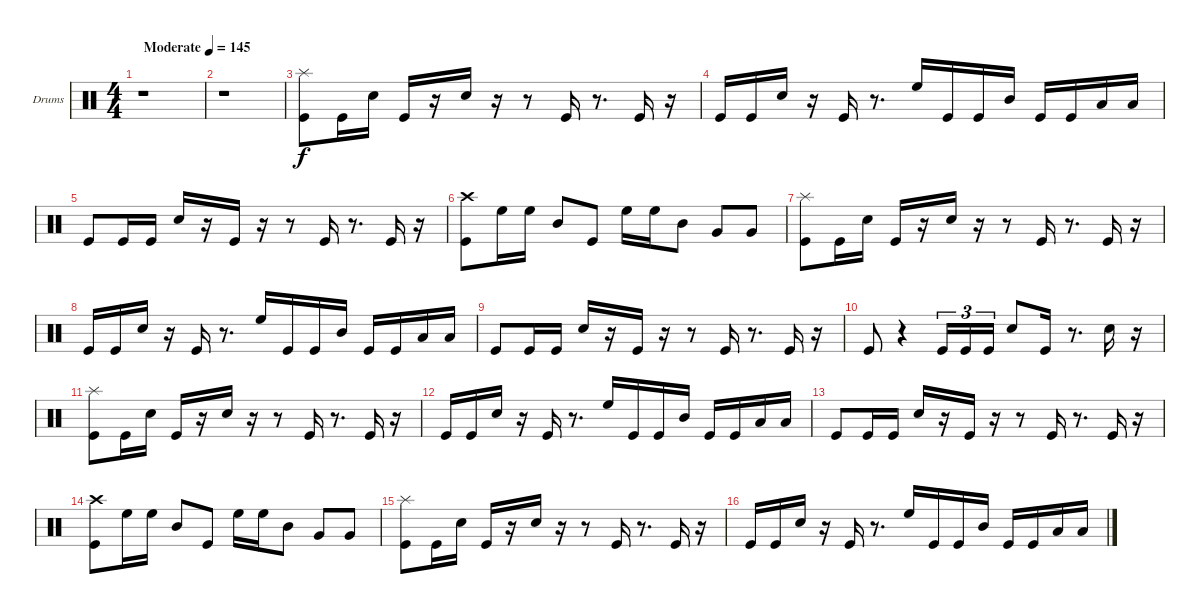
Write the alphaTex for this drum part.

\bracketExtendMode groupsimilarinstruments
\firstSystemTrackNameOrientation horizontal
\otherSystemsTrackNameOrientation horizontal
\track ("Drumkit" "Drums") {instrument percussion}
\staff {score}
\articulation defaults
\ts (4 4)
\beaming (8 2 2 2 2)
\tempo (145 "Moderate")
\clef neutral
\ks c
r.1{dy f} |
r.1 |
("Kick (hit)" "Splash (hit)").8 "Kick (hit)".16 "Snare (hit) 2".16 "Kick (hit)".16 r.16 "Snare (hit) 2".16 r.16 r.8 "Kick (hit)".16 r.8{d} "Kick (hit)".16 r.16 |
"Kick (hit)".16 "Kick (hit)".16 "Snare (hit) 2".16 r.16 "Kick (hit)".16 r.8{d} "High Floor Tom (hit)".16 "Kick (hit)".16 "Kick (hit)".16 "Mid Tom (hit)".16 "Kick (hit)".16 "Kick (hit)".16 "Low Tom (hit)".16 "Low Tom (hit)".16 |
"Kick (hit)".8 "Kick (hit)".16 "Kick (hit)".16 "Snare (hit) 2".16 r.16 "Kick (hit)".16 r.16 r.8 "Kick (hit)".16 r.8{d} "Kick (hit)".16 r.16 |
("Crash high (hit)" "Kick (hit)").8 "High Floor Tom (hit)".16 "High Floor Tom (hit)".16 "Mid Tom (hit)".8 "Kick (hit)".8 "High Floor Tom (hit)".16 "High Floor Tom (hit)".16 "Mid Tom (hit)".8 "Very Low Tom (hit)".8 "Very Low Tom (hit)".8 |
("Splash (hit)" "Kick (hit)").8 "Kick (hit)".16 "Snare (hit) 2".16 "Kick (hit)".16 r.16 "Snare (hit) 2".16 r.16 r.8 "Kick (hit)".16 r.8{d} "Kick (hit)".16 r.16 |
"Kick (hit)".16 "Kick (hit)".16 "Snare (hit) 2".16 r.16 "Kick (hit)".16 r.8{d} "High Floor Tom (hit)".16 "Kick (hit)".16 "Kick (hit)".16 "Mid Tom (hit)".16 "Kick (hit)".16 "Kick (hit)".16 "Low Tom (hit)".16 "Low Tom (hit)".16 |
"Kick (hit)".8 "Kick (hit)".16 "Kick (hit)".16 "Snare (hit) 2".16 r.16 "Kick (hit)".16 r.16 r.8 "Kick (hit)".16 r.8{d} "Kick (hit)".16 r.16 |
"Kick (hit)".8 r.4 "Kick (hit)".16{tu (3 2)} "Kick (hit)".16{tu (3 2)} "Kick (hit)".16{tu (3 2)} "Snare (hit) 2".8 "Kick (hit)".16 r.8{d} "Snare (hit) 2".16 r.16 |
("Kick (hit)" "Splash (hit)").8 "Kick (hit)".16 "Snare (hit) 2".16 "Kick (hit)".16 r.16 "Snare (hit) 2".16 r.16 r.8 "Kick (hit)".16 r.8{d} "Kick (hit)".16 r.16 |
"Kick (hit)".16 "Kick (hit)".16 "Snare (hit) 2".16 r.16 "Kick (hit)".16 r.8{d} "High Floor Tom (hit)".16 "Kick (hit)".16 "Kick (hit)".16 "Mid Tom (hit)".16 "Kick (hit)".16 "Kick (hit)".16 "Low Tom (hit)".16 "Low Tom (hit)".16 |
"Kick (hit)".8 "Kick (hit)".16 "Kick (hit)".16 "Snare (hit) 2".16 r.16 "Kick (hit)".16 r.16 r.8 "Kick (hit)".16 r.8{d} "Kick (hit)".16 r.16 |
("Kick (hit)" "Crash high (hit)").8 "High Floor Tom (hit)".16 "High Floor Tom (hit)".16 "Mid Tom (hit)".8 "Kick (hit)".8 "High Floor Tom (hit)".16 "High Floor Tom (hit)".16 "Mid Tom (hit)".8 "Very Low Tom (hit)".8 "Very Low Tom (hit)".8 |
("Splash (hit)" "Kick (hit)").8 "Kick (hit)".16 "Snare (hit) 2".16 "Kick (hit)".16 r.16 "Snare (hit) 2".16 r.16 r.8 "Kick (hit)".16 r.8{d} "Kick (hit)".16 r.16 |
"Kick (hit)".16 "Kick (hit)".16 "Snare (hit) 2".16 r.16 "Kick (hit)".16 r.8{d} "High Floor Tom (hit)".16 "Kick (hit)".16 "Kick (hit)".16 "Mid Tom (hit)".16 "Kick (hit)".16 "Kick (hit)".16 "Low Tom (hit)".16 "Low Tom (hit)".16
